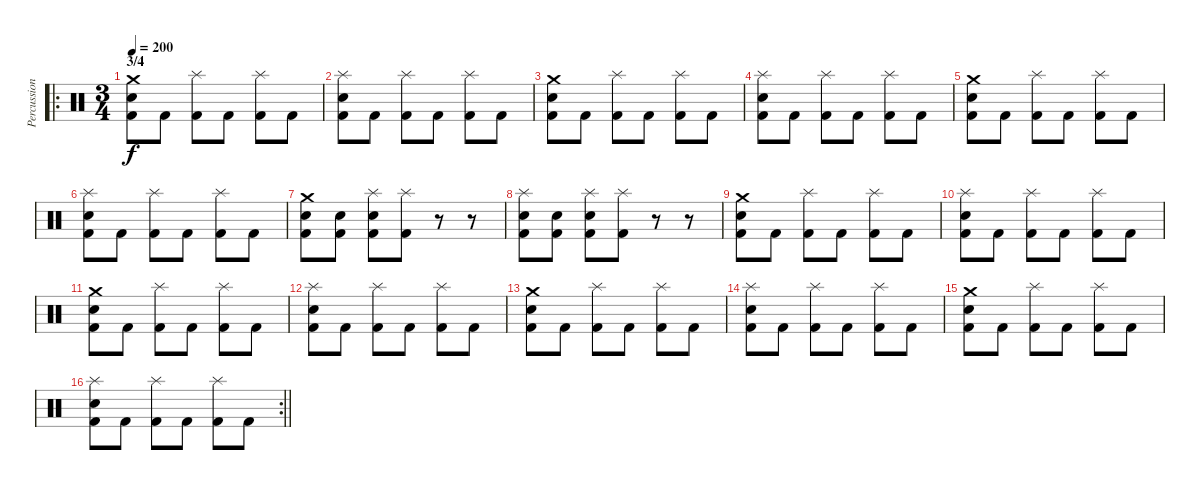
\track ("Percussion" "Percussion") {instrument percussion}
\staff {score}
\articulation defaults
\ro
\ts (3 4)
\section ("" "3/4")
\tempo 200
\clef neutral
\ks c
("Crash medium (hit)" "Electric Snare (hit)" "Kick (hit) 2").8{dy f} "Kick (hit) 2".8 ("Splash (hit)" "Kick (hit) 2").8 "Kick (hit) 2".8 ("Splash (hit)" "Kick (hit) 2").8 "Kick (hit) 2".8 |
("Splash (hit)" "Electric Snare (hit)" "Kick (hit) 2").8 "Kick (hit) 2".8 ("Splash (hit)" "Kick (hit) 2").8 "Kick (hit) 2".8 ("Splash (hit)" "Kick (hit) 2").8 "Kick (hit) 2".8 |
("Crash medium (hit)" "Electric Snare (hit)" "Kick (hit) 2").8 "Kick (hit) 2".8 ("Splash (hit)" "Kick (hit) 2").8 "Kick (hit) 2".8 ("Splash (hit)" "Kick (hit) 2").8 "Kick (hit) 2".8 |
("Splash (hit)" "Electric Snare (hit)" "Kick (hit) 2").8 "Kick (hit) 2".8 ("Splash (hit)" "Kick (hit) 2").8 "Kick (hit) 2".8 ("Splash (hit)" "Kick (hit) 2").8 "Kick (hit) 2".8 |
("Crash medium (hit)" "Electric Snare (hit)" "Kick (hit) 2").8 "Kick (hit) 2".8 ("Splash (hit)" "Kick (hit) 2").8 "Kick (hit) 2".8 ("Splash (hit)" "Kick (hit) 2").8 "Kick (hit) 2".8 |
("Splash (hit)" "Electric Snare (hit)" "Kick (hit) 2").8 "Kick (hit) 2".8 ("Splash (hit)" "Kick (hit) 2").8 "Kick (hit) 2".8 ("Splash (hit)" "Kick (hit) 2").8 "Kick (hit) 2".8 |
("Crash medium (hit)" "Electric Snare (hit)" "Kick (hit) 2").8 ("Electric Snare (hit)" "Kick (hit) 2").8 ("Splash (hit)" "Electric Snare (hit)" "Kick (hit) 2").8 ("Splash (hit)" "Kick (hit) 2").8 r.8 r.8 |
("Splash (hit)" "Electric Snare (hit)" "Kick (hit) 2").8 ("Electric Snare (hit)" "Kick (hit) 2").8 ("Splash (hit)" "Electric Snare (hit)" "Kick (hit) 2").8 ("Splash (hit)" "Kick (hit) 2").8 r.8 r.8 |
("Crash medium (hit)" "Electric Snare (hit)" "Kick (hit) 2").8 "Kick (hit) 2".8 ("Splash (hit)" "Kick (hit) 2").8 "Kick (hit) 2".8 ("Splash (hit)" "Kick (hit) 2").8 "Kick (hit) 2".8 |
("Splash (hit)" "Electric Snare (hit)" "Kick (hit) 2").8 "Kick (hit) 2".8 ("Splash (hit)" "Kick (hit) 2").8 "Kick (hit) 2".8 ("Splash (hit)" "Kick (hit) 2").8 "Kick (hit) 2".8 |
("Crash medium (hit)" "Electric Snare (hit)" "Kick (hit) 2").8 "Kick (hit) 2".8 ("Splash (hit)" "Kick (hit) 2").8 "Kick (hit) 2".8 ("Splash (hit)" "Kick (hit) 2").8 "Kick (hit) 2".8 |
("Splash (hit)" "Electric Snare (hit)" "Kick (hit) 2").8 "Kick (hit) 2".8 ("Splash (hit)" "Kick (hit) 2").8 "Kick (hit) 2".8 ("Splash (hit)" "Kick (hit) 2").8 "Kick (hit) 2".8 |
("Crash medium (hit)" "Electric Snare (hit)" "Kick (hit) 2").8 "Kick (hit) 2".8 ("Splash (hit)" "Kick (hit) 2").8 "Kick (hit) 2".8 ("Splash (hit)" "Kick (hit) 2").8 "Kick (hit) 2".8 |
("Splash (hit)" "Electric Snare (hit)" "Kick (hit) 2").8 "Kick (hit) 2".8 ("Splash (hit)" "Kick (hit) 2").8 "Kick (hit) 2".8 ("Splash (hit)" "Kick (hit) 2").8 "Kick (hit) 2".8 |
("Crash medium (hit)" "Electric Snare (hit)" "Kick (hit) 2").8 "Kick (hit) 2".8 ("Splash (hit)" "Kick (hit) 2").8 "Kick (hit) 2".8 ("Splash (hit)" "Kick (hit) 2").8 "Kick (hit) 2".8 |
\rc 2
\barLineRight lightlight
("Splash (hit)" "Electric Snare (hit)" "Kick (hit) 2").8 "Kick (hit) 2".8 ("Splash (hit)" "Kick (hit) 2").8 "Kick (hit) 2".8 ("Splash (hit)" "Kick (hit) 2").8 "Kick (hit) 2".8
